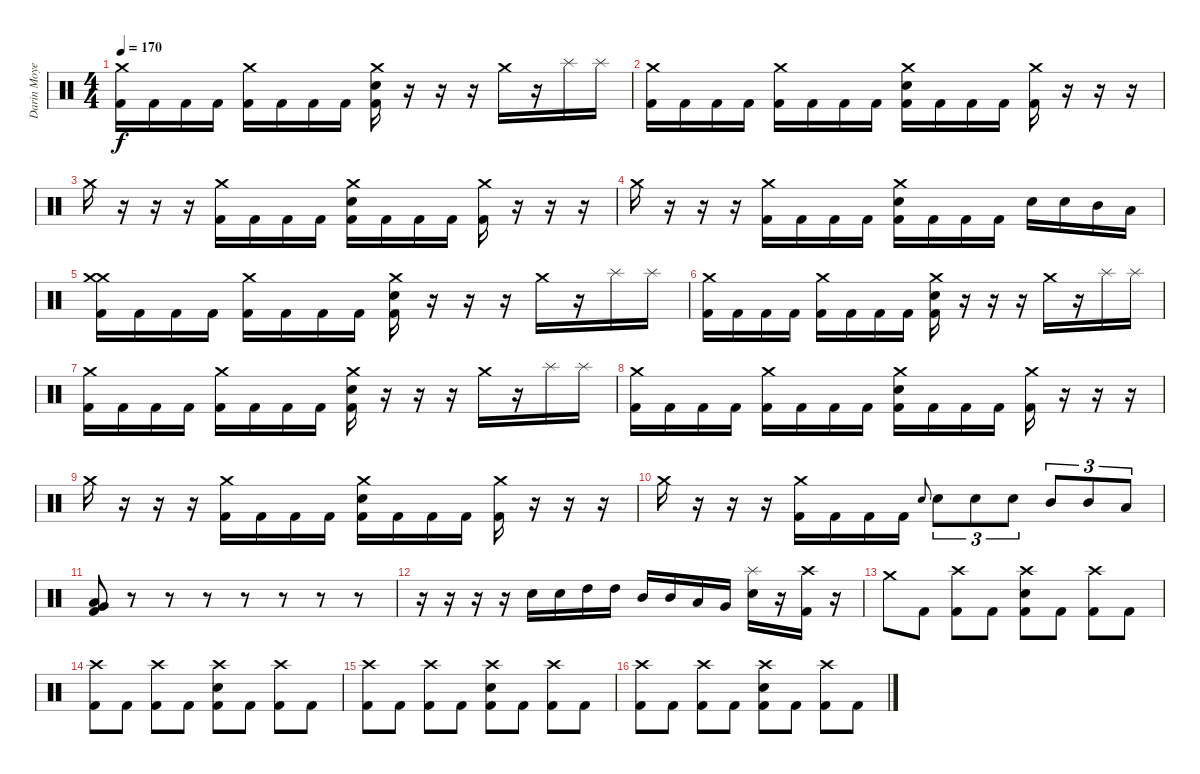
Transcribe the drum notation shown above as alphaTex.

\track ("Darin Moyen" "Darin Moye") {instrument percussion}
\staff {score}
\articulation defaults
\ts (4 4)
\tempo 170
\clef neutral
\ks c
("Crash medium (hit)" "Kick (hit) 2").16{dy f} "Kick (hit) 2".16 "Kick (hit) 2".16 "Kick (hit) 2".16 ("Crash medium (hit)" "Kick (hit) 2").16 "Kick (hit) 2".16 "Kick (hit) 2".16 "Kick (hit) 2".16 ("Crash medium (hit)" "Electric Snare (hit)" "Kick (hit) 2").16 r.16 r.16 r.16 "Crash medium (hit)".16 r.16 "Splash (hit)".16 "Splash (hit)".16 |
("Crash medium (hit)" "Kick (hit) 2").16 "Kick (hit) 2".16 "Kick (hit) 2".16 "Kick (hit) 2".16 ("Crash medium (hit)" "Kick (hit) 2").16 "Kick (hit) 2".16 "Kick (hit) 2".16 "Kick (hit) 2".16 ("Crash medium (hit)" "Electric Snare (hit)" "Kick (hit) 2").16 "Kick (hit) 2".16 "Kick (hit) 2".16 "Kick (hit) 2".16 ("Crash medium (hit)" "Kick (hit) 2").16 r.16 r.16 r.16 |
"Crash medium (hit)".16 r.16 r.16 r.16 ("Crash medium (hit)" "Kick (hit) 2").16 "Kick (hit) 2".16 "Kick (hit) 2".16 "Kick (hit) 2".16 ("Crash medium (hit)" "Electric Snare (hit)" "Kick (hit) 2").16 "Kick (hit) 2".16 "Kick (hit) 2".16 "Kick (hit) 2".16 ("Crash medium (hit)" "Kick (hit) 2").16 r.16 r.16 r.16 |
"Crash medium (hit)".16 r.16 r.16 r.16 ("Crash medium (hit)" "Kick (hit) 2").16 "Kick (hit) 2".16 "Kick (hit) 2".16 "Kick (hit) 2".16 ("Crash medium (hit)" "Electric Snare (hit)" "Kick (hit) 2").16 "Kick (hit) 2".16 "Kick (hit) 2".16 "Kick (hit) 2".16 "Electric Snare (hit)".16 "Electric Snare (hit)".16 "Mid Tom (hit)".16 "Low Tom (hit)".16 |
("Crash medium (hit)" "Crash medium (hit)" "Kick (hit) 2").16 "Kick (hit) 2".16 "Kick (hit) 2".16 "Kick (hit) 2".16 ("Crash medium (hit)" "Kick (hit) 2").16 "Kick (hit) 2".16 "Kick (hit) 2".16 "Kick (hit) 2".16 ("Crash medium (hit)" "Electric Snare (hit)" "Kick (hit) 2").16 r.16 r.16 r.16 "Crash medium (hit)".16 r.16 "Splash (hit)".16 "Splash (hit)".16 |
("Crash medium (hit)" "Kick (hit) 2").16 "Kick (hit) 2".16 "Kick (hit) 2".16 "Kick (hit) 2".16 ("Crash medium (hit)" "Kick (hit) 2").16 "Kick (hit) 2".16 "Kick (hit) 2".16 "Kick (hit) 2".16 ("Crash medium (hit)" "Electric Snare (hit)" "Kick (hit) 2").16 r.16 r.16 r.16 "Crash medium (hit)".16 r.16 "Splash (hit)".16 "Splash (hit)".16 |
("Crash medium (hit)" "Kick (hit) 2").16 "Kick (hit) 2".16 "Kick (hit) 2".16 "Kick (hit) 2".16 ("Crash medium (hit)" "Kick (hit) 2").16 "Kick (hit) 2".16 "Kick (hit) 2".16 "Kick (hit) 2".16 ("Crash medium (hit)" "Electric Snare (hit)" "Kick (hit) 2").16 r.16 r.16 r.16 "Crash medium (hit)".16 r.16 "Splash (hit)".16 "Splash (hit)".16 |
("Crash medium (hit)" "Kick (hit) 2").16 "Kick (hit) 2".16 "Kick (hit) 2".16 "Kick (hit) 2".16 ("Crash medium (hit)" "Kick (hit) 2").16 "Kick (hit) 2".16 "Kick (hit) 2".16 "Kick (hit) 2".16 ("Crash medium (hit)" "Electric Snare (hit)" "Kick (hit) 2").16 "Kick (hit) 2".16 "Kick (hit) 2".16 "Kick (hit) 2".16 ("Crash medium (hit)" "Kick (hit) 2").16 r.16 r.16 r.16 |
"Crash medium (hit)".16 r.16 r.16 r.16 ("Crash medium (hit)" "Kick (hit) 2").16 "Kick (hit) 2".16 "Kick (hit) 2".16 "Kick (hit) 2".16 ("Crash medium (hit)" "Electric Snare (hit)" "Kick (hit) 2").16 "Kick (hit) 2".16 "Kick (hit) 2".16 "Kick (hit) 2".16 ("Crash medium (hit)" "Kick (hit) 2").16 r.16 r.16 r.16 |
"Crash medium (hit)".16 r.16 r.16 r.16 ("Crash medium (hit)" "Kick (hit) 2").16 "Kick (hit) 2".16 "Kick (hit) 2".16 "Kick (hit) 2".16 "Electric Snare (hit)".8{gr onbeat} "Electric Snare (hit)".8{tu (3 2)} "Electric Snare (hit)".8{tu (3 2)} "Electric Snare (hit)".8{tu (3 2)} "Mid Tom (hit)".8{tu (3 2)} "Mid Tom (hit)".8{tu (3 2)} "Low Tom (hit)".8{tu (3 2)} |
("Low Tom (hit)" "Very Low Tom (hit)" "Kick (hit) 2").8 r.8 r.8 r.8 r.8 r.8 r.8 r.8 |
r.16 r.16 r.16 r.16 "Electric Snare (hit)".16 "Electric Snare (hit)".16 "High Tom (hit)".16 "High Tom (hit)".16 "Mid Tom (hit)".16 "Mid Tom (hit)".16 "Low Tom (hit)".16 "Very Low Tom (hit)".16 ("Splash (hit)" "Electric Snare (hit)").16 r.16 ("Crash high (hit)" "Kick (hit) 2").16 r.16 |
"Crash medium (hit)".8 "Kick (hit) 2".8 ("Crash high (hit)" "Kick (hit) 2").8 "Kick (hit) 2".8 ("Crash high (hit)" "Electric Snare (hit)" "Kick (hit) 2").8 "Kick (hit) 2".8 ("Crash high (hit)" "Kick (hit) 2").8 "Kick (hit) 2".8 |
("Crash high (hit)" "Kick (hit) 2").8 "Kick (hit) 2".8 ("Crash high (hit)" "Kick (hit) 2").8 "Kick (hit) 2".8 ("Crash high (hit)" "Electric Snare (hit)" "Kick (hit) 2").8 "Kick (hit) 2".8 ("Crash high (hit)" "Kick (hit) 2").8 "Kick (hit) 2".8 |
("Crash high (hit)" "Kick (hit) 2").8 "Kick (hit) 2".8 ("Crash high (hit)" "Kick (hit) 2").8 "Kick (hit) 2".8 ("Crash high (hit)" "Electric Snare (hit)" "Kick (hit) 2").8 "Kick (hit) 2".8 ("Crash high (hit)" "Kick (hit) 2").8 "Kick (hit) 2".8 |
("Crash high (hit)" "Kick (hit) 2").8 "Kick (hit) 2".8 ("Crash high (hit)" "Kick (hit) 2").8 "Kick (hit) 2".8 ("Crash high (hit)" "Electric Snare (hit)" "Kick (hit) 2").8 "Kick (hit) 2".8 ("Crash high (hit)" "Kick (hit) 2").8 "Kick (hit) 2".8
